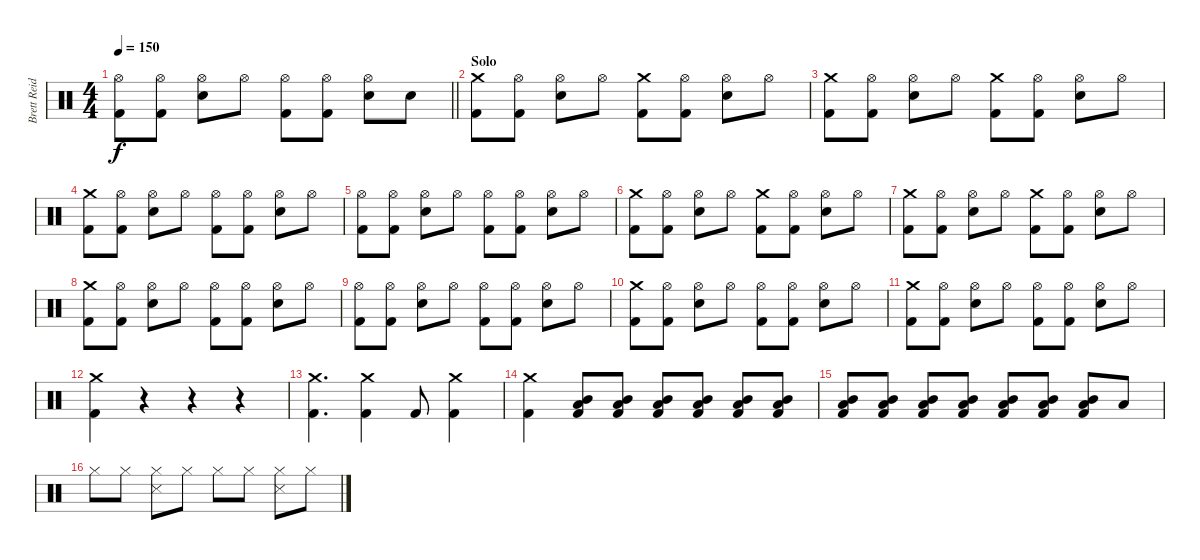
\track ("Brett Reid" "Brett Reid") {instrument percussion}
\staff {score}
\articulation defaults
\ts (4 4)
\tempo 150
\clef neutral
\barLineRight lightlight
\ks c
("Hi-Hat (open)" "Kick (hit) 2").8{dy f} ("Hi-Hat (open)" "Kick (hit) 2").8 ("Hi-Hat (open)" "Snare (hit) 2").8 "Hi-Hat (open)".8 ("Hi-Hat (open)" "Kick (hit) 2").8 ("Hi-Hat (open)" "Kick (hit) 2").8 ("Hi-Hat (open)" "Snare (hit) 2").8 "Snare (hit) 2".8 |
\section ("" "Solo")
("Crash medium (hit)" "Kick (hit) 2").8 ("Hi-Hat (open)" "Kick (hit) 2").8 ("Hi-Hat (open)" "Electric Snare (hit)").8 "Hi-Hat (open)".8 ("Crash medium (hit)" "Kick (hit) 2").8 ("Hi-Hat (open)" "Kick (hit) 2").8 ("Hi-Hat (open)" "Electric Snare (hit)").8 "Hi-Hat (open)".8 |
("Crash medium (hit)" "Kick (hit) 2").8 ("Hi-Hat (open)" "Kick (hit) 2").8 ("Hi-Hat (open)" "Electric Snare (hit)").8 "Hi-Hat (open)".8 ("Crash medium (hit)" "Kick (hit) 2").8 ("Hi-Hat (open)" "Kick (hit) 2").8 ("Hi-Hat (open)" "Electric Snare (hit)").8 "Hi-Hat (open)".8 |
("Crash medium (hit)" "Kick (hit) 2").8 ("Hi-Hat (open)" "Kick (hit) 2").8 ("Hi-Hat (open)" "Electric Snare (hit)").8 "Hi-Hat (open)".8 ("Hi-Hat (open)" "Kick (hit) 2").8 ("Hi-Hat (open)" "Kick (hit) 2").8 ("Hi-Hat (open)" "Electric Snare (hit)").8 "Hi-Hat (open)".8 |
("Hi-Hat (open)" "Kick (hit) 2").8 ("Hi-Hat (open)" "Kick (hit) 2").8 ("Hi-Hat (open)" "Electric Snare (hit)").8 "Hi-Hat (open)".8 ("Hi-Hat (open)" "Kick (hit) 2").8 ("Hi-Hat (open)" "Kick (hit) 2").8 ("Hi-Hat (open)" "Electric Snare (hit)").8 "Hi-Hat (open)".8 |
("Crash medium (hit)" "Kick (hit) 2").8 ("Hi-Hat (open)" "Kick (hit) 2").8 ("Hi-Hat (open)" "Electric Snare (hit)").8 "Hi-Hat (open)".8 ("Crash medium (hit)" "Kick (hit) 2").8 ("Hi-Hat (open)" "Kick (hit) 2").8 ("Hi-Hat (open)" "Electric Snare (hit)").8 "Hi-Hat (open)".8 |
("Crash medium (hit)" "Kick (hit) 2").8 ("Hi-Hat (open)" "Kick (hit) 2").8 ("Hi-Hat (open)" "Electric Snare (hit)").8 "Hi-Hat (open)".8 ("Crash medium (hit)" "Kick (hit) 2").8 ("Hi-Hat (open)" "Kick (hit) 2").8 ("Hi-Hat (open)" "Electric Snare (hit)").8 "Hi-Hat (open)".8 |
("Crash medium (hit)" "Kick (hit) 2").8 ("Hi-Hat (open)" "Kick (hit) 2").8 ("Hi-Hat (open)" "Electric Snare (hit)").8 "Hi-Hat (open)".8 ("Hi-Hat (open)" "Kick (hit) 2").8 ("Hi-Hat (open)" "Kick (hit) 2").8 ("Hi-Hat (open)" "Electric Snare (hit)").8 "Hi-Hat (open)".8 |
("Hi-Hat (open)" "Kick (hit) 2").8 ("Hi-Hat (open)" "Kick (hit) 2").8 ("Hi-Hat (open)" "Electric Snare (hit)").8 "Hi-Hat (open)".8 ("Hi-Hat (open)" "Kick (hit) 2").8 ("Hi-Hat (open)" "Kick (hit) 2").8 ("Hi-Hat (open)" "Electric Snare (hit)").8 "Hi-Hat (open)".8 |
("Crash medium (hit)" "Kick (hit) 2").8 ("Hi-Hat (open)" "Kick (hit) 2").8 ("Hi-Hat (open)" "Electric Snare (hit)").8 "Hi-Hat (open)".8 ("Hi-Hat (open)" "Kick (hit) 2").8 ("Hi-Hat (open)" "Kick (hit) 2").8 ("Hi-Hat (open)" "Electric Snare (hit)").8 "Hi-Hat (open)".8 |
("Crash medium (hit)" "Kick (hit) 2").8 ("Hi-Hat (open)" "Kick (hit) 2").8 ("Hi-Hat (open)" "Electric Snare (hit)").8 "Hi-Hat (open)".8 ("Hi-Hat (open)" "Kick (hit) 2").8 ("Hi-Hat (open)" "Kick (hit) 2").8 ("Hi-Hat (open)" "Electric Snare (hit)").8 "Hi-Hat (open)".8 |
("Crash medium (hit)" "Kick (hit) 2").4 r.4 r.4 r.4 |
("Crash medium (hit)" "Kick (hit) 2").4{d} ("Crash medium (hit)" "Kick (hit) 2").4 "Kick (hit) 2".8 ("Crash medium (hit)" "Kick (hit) 2").4 |
("Crash medium (hit)" "Kick (hit) 2").4 ("Mid Tom (hit)" "Low Floor Tom (hit)" "Kick (hit) 2").8 ("Mid Tom (hit)" "Low Floor Tom (hit)" "Kick (hit) 2").8 ("Mid Tom (hit)" "Low Floor Tom (hit)" "Kick (hit) 2").8 ("Mid Tom (hit)" "Low Floor Tom (hit)" "Kick (hit) 2").8 ("Mid Tom (hit)" "Low Floor Tom (hit)" "Kick (hit) 2").8 ("Mid Tom (hit)" "Low Floor Tom (hit)" "Kick (hit) 2").8 |
("Mid Tom (hit)" "Low Floor Tom (hit)" "Kick (hit) 2").8 ("Mid Tom (hit)" "Low Floor Tom (hit)" "Kick (hit) 2").8 ("Mid Tom (hit)" "Low Floor Tom (hit)" "Kick (hit) 2").8 ("Mid Tom (hit)" "Low Floor Tom (hit)" "Kick (hit) 2").8 ("Mid Tom (hit)" "Low Floor Tom (hit)" "Kick (hit) 2").8 ("Mid Tom (hit)" "Low Floor Tom (hit)" "Kick (hit) 2").8 ("Mid Tom (hit)" "Low Floor Tom (hit)" "Kick (hit) 2").8 "Low Floor Tom (hit)".8 |
"Hi-Hat (closed)".8 "Hi-Hat (closed)".8 ("Snare (side stick) 3" "Hi-Hat (closed)").8 "Hi-Hat (closed)".8 "Hi-Hat (closed)".8 "Hi-Hat (closed)".8 ("Snare (side stick) 3" "Hi-Hat (closed)").8 "Hi-Hat (closed)".8
